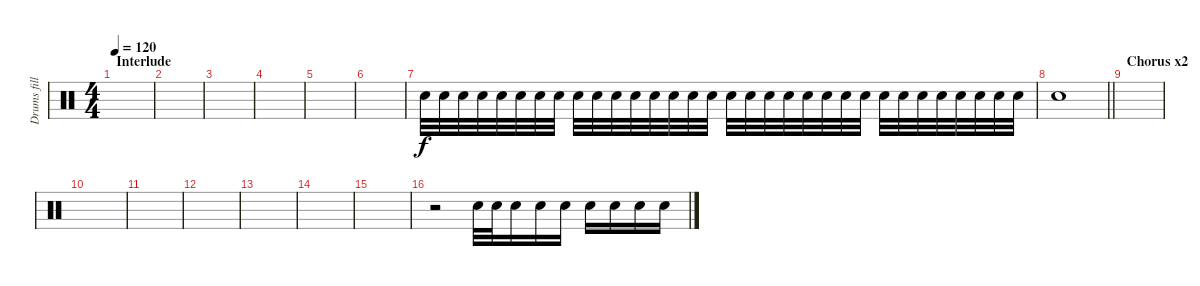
\track ("Drums fills" "Drums fill") {instrument percussion}
\staff {score}
\articulation defaults
\ts (4 4)
\section ("" "Interlude")
\tempo 120
\clef neutral
\ks c
|
|
|
|
|
|
"Electric Snare (hit)".32{volume 10} "Electric Snare (hit)".32 "Electric Snare (hit)".32 "Electric Snare (hit)".32 "Electric Snare (hit)".32 "Electric Snare (hit)".32 "Electric Snare (hit)".32 "Electric Snare (hit)".32 "Electric Snare (hit)".32 "Electric Snare (hit)".32 "Electric Snare (hit)".32 "Electric Snare (hit)".32 "Electric Snare (hit)".32 "Electric Snare (hit)".32 "Electric Snare (hit)".32 "Electric Snare (hit)".32 "Electric Snare (hit)".32 "Electric Snare (hit)".32 "Electric Snare (hit)".32 "Electric Snare (hit)".32 "Electric Snare (hit)".32 "Electric Snare (hit)".32 "Electric Snare (hit)".32 "Electric Snare (hit)".32 "Electric Snare (hit)".32 "Electric Snare (hit)".32 "Electric Snare (hit)".32 "Electric Snare (hit)".32 "Electric Snare (hit)".32 "Electric Snare (hit)".32 "Electric Snare (hit)".32 "Electric Snare (hit)".32 |
\barLineRight lightlight "Electric Snare (hit)".1
|
\section ("" "Chorus x2")
|
|
|
|
|
|
|
r.2 "Electric Snare (hit)".32 "Electric Snare (hit)".32 "Electric Snare (hit)".16 "Electric Snare (hit)".16 "Electric Snare (hit)".16 "Electric Snare (hit)".16 "Electric Snare (hit)".16 "Electric Snare (hit)".16 "Electric Snare (hit)".16
